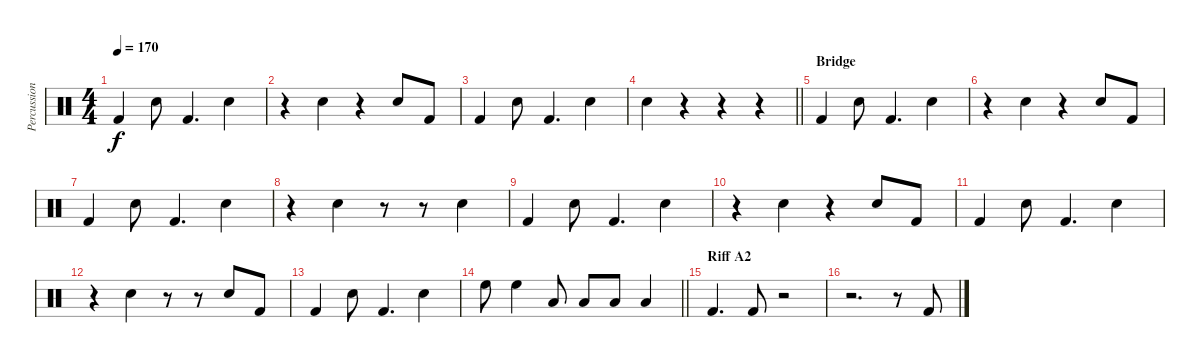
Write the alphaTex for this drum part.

\track ("Percussion" "Percussion") {instrument percussion}
\staff {score}
\articulation defaults
\ts (4 4)
\tempo 170
\clef neutral
\ks c "Kick (hit) 2".4{dy f} "Hand Clap (hit)".8 "Kick (hit) 2".4{d} "Hand Clap (hit)".4
|
r.4 "Hand Clap (hit)".4 r.4 "Hand Clap (hit)".8 "Kick (hit) 2".8 |
"Kick (hit) 2".4 "Hand Clap (hit)".8 "Kick (hit) 2".4{d} "Hand Clap (hit)".4 |
\barLineRight lightlight "Hand Clap (hit)".4
r.4 r.4 r.4 |
\section ("" "Bridge")
"Kick (hit) 2".4 "Snare (hit) 2".8 "Kick (hit) 2".4{d} "Snare (hit) 2".4 |
r.4 "Snare (hit) 2".4 r.4 "Snare (hit) 2".8 "Kick (hit) 2".8 |
"Kick (hit) 2".4 "Snare (hit) 2".8 "Kick (hit) 2".4{d} "Snare (hit) 2".4 |
r.4 "Snare (hit) 2".4 r.8 r.8 "Snare (hit) 2".4 |
"Kick (hit) 2".4 "Snare (hit) 2".8 "Kick (hit) 2".4{d} "Snare (hit) 2".4 |
r.4 "Snare (hit) 2".4 r.4 "Snare (hit) 2".8 "Kick (hit) 2".8 |
"Kick (hit) 2".4 "Snare (hit) 2".8 "Kick (hit) 2".4{d} "Snare (hit) 2".4 |
r.4 "Snare (hit) 2".4 r.8 r.8 "Snare (hit) 2".8 "Kick (hit) 2".8 |
"Kick (hit) 2".4 "Snare (hit) 2".8 "Kick (hit) 2".4{d} "Snare (hit) 2".4 |
\barLineRight lightlight "High Floor Tom (hit)".8 "High Floor Tom (hit)".4 "Low Tom (hit)".8 "Low Tom (hit)".8 "Low Tom (hit)".8 "Low Tom (hit)".4
|
\section ("" "Riff A2")
"Kick (hit) 2".4{d} "Kick (hit) 2".8 r.2 |
r.2{d} r.8 "Kick (hit) 2".8
